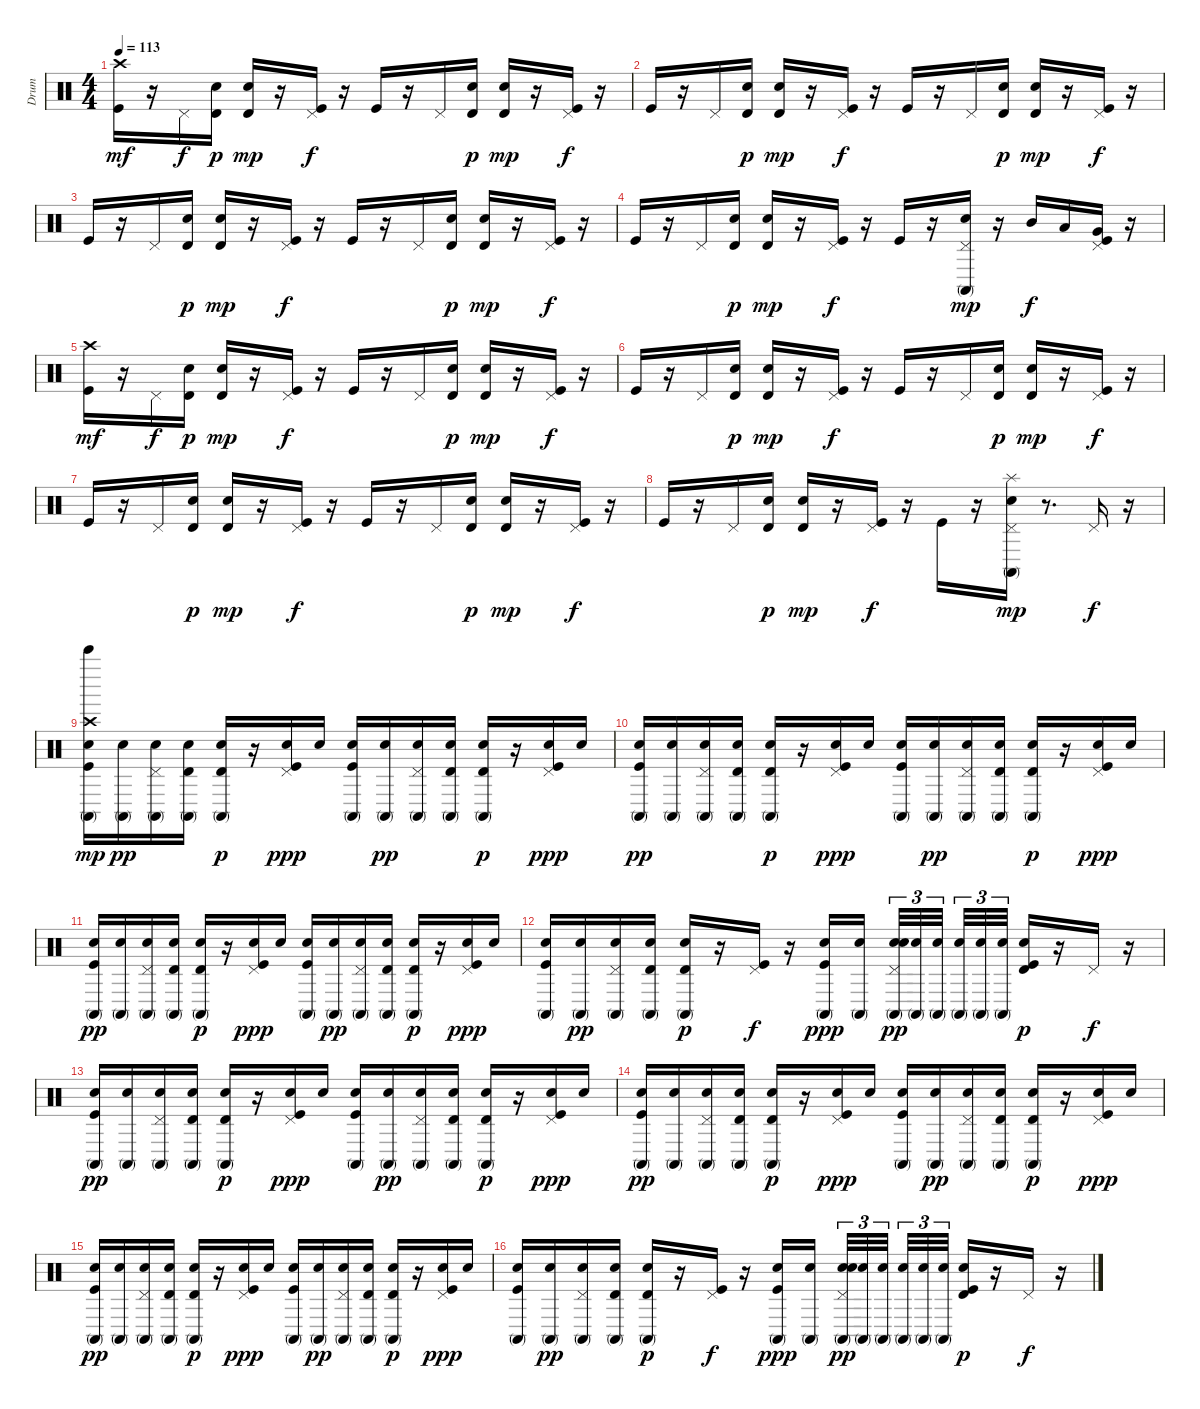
\track ("Drum" "Drum") {instrument percussion}
\staff {score}
\articulation defaults
\ts (4 4)
\tempo 113
\clef neutral
\ks c
("Crash high (hit)" "Kick (hit)").16{dy mf} r.16 "Pedal Hi-Hat (hit)".16{dy f} ("Electric Snare (hit)" "Timbale high (hit)").16{dy p} ("Electric Snare (hit)" "Timbale high (hit)").16{dy mp} r.16 ("Kick (hit)" "Pedal Hi-Hat (hit)").16{dy f} r.16 "Kick (hit)".16 r.16 "Pedal Hi-Hat (hit)".16 ("Electric Snare (hit)" "Timbale high (hit)").16{dy p} ("Electric Snare (hit)" "Timbale high (hit)").16{dy mp} r.16 ("Kick (hit)" "Pedal Hi-Hat (hit)").16{dy f} r.16 |
"Kick (hit)".16 r.16 "Pedal Hi-Hat (hit)".16 ("Electric Snare (hit)" "Timbale high (hit)").16{dy p} ("Electric Snare (hit)" "Timbale high (hit)").16{dy mp} r.16 ("Kick (hit)" "Pedal Hi-Hat (hit)").16{dy f} r.16 "Kick (hit)".16 r.16 "Pedal Hi-Hat (hit)".16 ("Electric Snare (hit)" "Timbale high (hit)").16{dy p} ("Electric Snare (hit)" "Timbale high (hit)").16{dy mp} r.16 ("Kick (hit)" "Pedal Hi-Hat (hit)").16{dy f} r.16 |
"Kick (hit)".16 r.16 "Pedal Hi-Hat (hit)".16 ("Electric Snare (hit)" "Timbale high (hit)").16{dy p} ("Electric Snare (hit)" "Timbale high (hit)").16{dy mp} r.16 ("Kick (hit)" "Pedal Hi-Hat (hit)").16{dy f} r.16 "Kick (hit)".16 r.16 "Pedal Hi-Hat (hit)".16 ("Electric Snare (hit)" "Timbale high (hit)").16{dy p} ("Electric Snare (hit)" "Timbale high (hit)").16{dy mp} r.16 ("Kick (hit)" "Pedal Hi-Hat (hit)").16{dy f} r.16 |
"Kick (hit)".16 r.16 "Pedal Hi-Hat (hit)".16 ("Electric Snare (hit)" "Timbale high (hit)").16{dy p} ("Electric Snare (hit)" "Timbale high (hit)").16{dy mp} r.16 ("Kick (hit)" "Pedal Hi-Hat (hit)").16{dy f} r.16 "Kick (hit)".16 r.16 ("Electric Snare (hit)" "Conga high (mute)" "Pedal Hi-Hat (hit)").16{dy mp} r.16 "Mid Tom (hit)".16{dy f} "Low Tom (hit)".16 ("Very Low Tom (hit)" "Kick (hit)" "Pedal Hi-Hat (hit)").16 r.16 |
("Crash high (hit)" "Kick (hit)").16{dy mf} r.16 "Pedal Hi-Hat (hit)".16{dy f} ("Electric Snare (hit)" "Timbale high (hit)").16{dy p} ("Electric Snare (hit)" "Timbale high (hit)").16{dy mp} r.16 ("Kick (hit)" "Pedal Hi-Hat (hit)").16{dy f} r.16 "Kick (hit)".16 r.16 "Pedal Hi-Hat (hit)".16 ("Electric Snare (hit)" "Timbale high (hit)").16{dy p} ("Electric Snare (hit)" "Timbale high (hit)").16{dy mp} r.16 ("Kick (hit)" "Pedal Hi-Hat (hit)").16{dy f} r.16 |
"Kick (hit)".16 r.16 "Pedal Hi-Hat (hit)".16 ("Electric Snare (hit)" "Timbale high (hit)").16{dy p} ("Electric Snare (hit)" "Timbale high (hit)").16{dy mp} r.16 ("Kick (hit)" "Pedal Hi-Hat (hit)").16{dy f} r.16 "Kick (hit)".16 r.16 "Pedal Hi-Hat (hit)".16 ("Electric Snare (hit)" "Timbale high (hit)").16{dy p} ("Electric Snare (hit)" "Timbale high (hit)").16{dy mp} r.16 ("Kick (hit)" "Pedal Hi-Hat (hit)").16{dy f} r.16 |
"Kick (hit)".16 r.16 "Pedal Hi-Hat (hit)".16 ("Electric Snare (hit)" "Timbale high (hit)").16{dy p} ("Electric Snare (hit)" "Timbale high (hit)").16{dy mp} r.16 ("Kick (hit)" "Pedal Hi-Hat (hit)").16{dy f} r.16 "Kick (hit)".16 r.16 "Pedal Hi-Hat (hit)".16 ("Electric Snare (hit)" "Timbale high (hit)").16{dy p} ("Electric Snare (hit)" "Timbale high (hit)").16{dy mp} r.16 ("Kick (hit)" "Pedal Hi-Hat (hit)").16{dy f} r.16 |
"Kick (hit)".16 r.16 "Pedal Hi-Hat (hit)".16 ("Electric Snare (hit)" "Timbale high (hit)").16{dy p} ("Electric Snare (hit)" "Timbale high (hit)").16{dy mp} r.16 ("Kick (hit)" "Pedal Hi-Hat (hit)").16{dy f} r.16 "Kick (hit)".16 r.16 ("Splash (hit)" "Electric Snare (hit)" "Conga high (mute)" "Pedal Hi-Hat (hit)").16{dy mp} r.8{d} "Pedal Hi-Hat (hit)".16{dy f} r.16 |
("Crash high (hit)" "Electric Snare (hit)" "Conga high (mute)" "Kick (hit)" "Bell Tree (hit)").16{dy mp} ("Electric Snare (hit)" "Conga high (mute)").16{dy pp} ("Electric Snare (hit)" "Conga high (mute)" "Pedal Hi-Hat (hit)").16 ("Electric Snare (hit)" "Conga high (mute)" "Timbale high (hit)").16 ("Electric Snare (hit)" "Conga high (mute)" "Timbale high (hit)").16{dy p} r.16 ("Electric Snare (hit)" "Kick (hit)" "Pedal Hi-Hat (hit)").16{dy ppp} "Electric Snare (hit)".16 ("Electric Snare (hit)" "Conga high (mute)" "Kick (hit)").16 ("Electric Snare (hit)" "Conga high (mute)").16{dy pp} ("Electric Snare (hit)" "Conga high (mute)" "Pedal Hi-Hat (hit)").16 ("Electric Snare (hit)" "Conga high (mute)" "Timbale high (hit)").16 ("Electric Snare (hit)" "Conga high (mute)" "Timbale high (hit)").16{dy p} r.16 ("Electric Snare (hit)" "Kick (hit)" "Pedal Hi-Hat (hit)").16{dy ppp} "Electric Snare (hit)".16 |
("Electric Snare (hit)" "Conga high (mute)" "Kick (hit)").16{dy pp} ("Electric Snare (hit)" "Conga high (mute)").16 ("Electric Snare (hit)" "Conga high (mute)" "Pedal Hi-Hat (hit)").16 ("Electric Snare (hit)" "Conga high (mute)" "Timbale high (hit)").16 ("Electric Snare (hit)" "Conga high (mute)" "Timbale high (hit)").16{dy p} r.16 ("Electric Snare (hit)" "Kick (hit)" "Pedal Hi-Hat (hit)").16{dy ppp} "Electric Snare (hit)".16 ("Electric Snare (hit)" "Conga high (mute)" "Kick (hit)").16 ("Electric Snare (hit)" "Conga high (mute)").16{dy pp} ("Electric Snare (hit)" "Conga high (mute)" "Pedal Hi-Hat (hit)").16 ("Electric Snare (hit)" "Conga high (mute)" "Timbale high (hit)").16 ("Electric Snare (hit)" "Conga high (mute)" "Timbale high (hit)").16{dy p} r.16 ("Electric Snare (hit)" "Kick (hit)" "Pedal Hi-Hat (hit)").16{dy ppp} "Electric Snare (hit)".16 |
("Electric Snare (hit)" "Conga high (mute)" "Kick (hit)").16{dy pp} ("Electric Snare (hit)" "Conga high (mute)").16 ("Electric Snare (hit)" "Conga high (mute)" "Pedal Hi-Hat (hit)").16 ("Electric Snare (hit)" "Conga high (mute)" "Timbale high (hit)").16 ("Electric Snare (hit)" "Conga high (mute)" "Timbale high (hit)").16{dy p} r.16 ("Electric Snare (hit)" "Kick (hit)" "Pedal Hi-Hat (hit)").16{dy ppp} "Electric Snare (hit)".16 ("Electric Snare (hit)" "Conga high (mute)" "Kick (hit)").16 ("Electric Snare (hit)" "Conga high (mute)").16{dy pp} ("Electric Snare (hit)" "Conga high (mute)" "Pedal Hi-Hat (hit)").16 ("Electric Snare (hit)" "Conga high (mute)" "Timbale high (hit)").16 ("Electric Snare (hit)" "Conga high (mute)" "Timbale high (hit)").16{dy p} r.16 ("Electric Snare (hit)" "Kick (hit)" "Pedal Hi-Hat (hit)").16{dy ppp} "Electric Snare (hit)".16 |
("Electric Snare (hit)" "Conga high (mute)" "Kick (hit)").16 ("Electric Snare (hit)" "Conga high (mute)").16{dy pp} ("Electric Snare (hit)" "Conga high (mute)" "Pedal Hi-Hat (hit)").16 ("Electric Snare (hit)" "Conga high (mute)" "Timbale high (hit)").16 ("Electric Snare (hit)" "Conga high (mute)" "Timbale high (hit)").16{dy p} r.16 ("Kick (hit)" "Pedal Hi-Hat (hit)").16{dy f} r.16 ("Electric Snare (hit)" "Conga high (mute)" "Kick (hit)").16{dy ppp} ("Electric Snare (hit)" "Conga high (mute)").16 ("Electric Snare (hit)" "Electric Snare (hit)" "Conga high (mute)" "Pedal Hi-Hat (hit)").32{tu (3 2) dy pp} ("Electric Snare (hit)" "Conga high (mute)").32{tu (3 2)} ("Electric Snare (hit)" "Conga high (mute)").32{tu (3 2)} ("Electric Snare (hit)" "Conga high (mute)").32{tu (3 2)} ("Electric Snare (hit)" "Conga high (mute)").32{tu (3 2)} ("Electric Snare (hit)" "Conga high (mute)").32{tu (3 2)} ("Timbale high (hit)" "Electric Snare (hit)" "Kick (hit)").16{dy p} r.16 "Pedal Hi-Hat (hit)".16{dy f} r.16 |
("Electric Snare (hit)" "Conga high (mute)" "Kick (hit)").16{dy pp} ("Electric Snare (hit)" "Conga high (mute)").16 ("Electric Snare (hit)" "Conga high (mute)" "Pedal Hi-Hat (hit)").16 ("Electric Snare (hit)" "Conga high (mute)" "Timbale high (hit)").16 ("Electric Snare (hit)" "Conga high (mute)" "Timbale high (hit)").16{dy p} r.16 ("Electric Snare (hit)" "Kick (hit)" "Pedal Hi-Hat (hit)").16{dy ppp} "Electric Snare (hit)".16 ("Electric Snare (hit)" "Conga high (mute)" "Kick (hit)").16 ("Electric Snare (hit)" "Conga high (mute)").16{dy pp} ("Electric Snare (hit)" "Conga high (mute)" "Pedal Hi-Hat (hit)").16 ("Electric Snare (hit)" "Conga high (mute)" "Timbale high (hit)").16 ("Electric Snare (hit)" "Conga high (mute)" "Timbale high (hit)").16{dy p} r.16 ("Electric Snare (hit)" "Kick (hit)" "Pedal Hi-Hat (hit)").16{dy ppp} "Electric Snare (hit)".16 |
("Electric Snare (hit)" "Conga high (mute)" "Kick (hit)").16{dy pp} ("Electric Snare (hit)" "Conga high (mute)").16 ("Electric Snare (hit)" "Conga high (mute)" "Pedal Hi-Hat (hit)").16 ("Electric Snare (hit)" "Conga high (mute)" "Timbale high (hit)").16 ("Electric Snare (hit)" "Conga high (mute)" "Timbale high (hit)").16{dy p} r.16 ("Electric Snare (hit)" "Kick (hit)" "Pedal Hi-Hat (hit)").16{dy ppp} "Electric Snare (hit)".16 ("Electric Snare (hit)" "Conga high (mute)" "Kick (hit)").16 ("Electric Snare (hit)" "Conga high (mute)").16{dy pp} ("Electric Snare (hit)" "Conga high (mute)" "Pedal Hi-Hat (hit)").16 ("Electric Snare (hit)" "Conga high (mute)" "Timbale high (hit)").16 ("Electric Snare (hit)" "Conga high (mute)" "Timbale high (hit)").16{dy p} r.16 ("Electric Snare (hit)" "Kick (hit)" "Pedal Hi-Hat (hit)").16{dy ppp} "Electric Snare (hit)".16 |
("Electric Snare (hit)" "Conga high (mute)" "Kick (hit)").16{dy pp} ("Electric Snare (hit)" "Conga high (mute)").16 ("Electric Snare (hit)" "Conga high (mute)" "Pedal Hi-Hat (hit)").16 ("Electric Snare (hit)" "Conga high (mute)" "Timbale high (hit)").16 ("Electric Snare (hit)" "Conga high (mute)" "Timbale high (hit)").16{dy p} r.16 ("Electric Snare (hit)" "Kick (hit)" "Pedal Hi-Hat (hit)").16{dy ppp} "Electric Snare (hit)".16 ("Electric Snare (hit)" "Conga high (mute)" "Kick (hit)").16 ("Electric Snare (hit)" "Conga high (mute)").16{dy pp} ("Electric Snare (hit)" "Conga high (mute)" "Pedal Hi-Hat (hit)").16 ("Electric Snare (hit)" "Conga high (mute)" "Timbale high (hit)").16 ("Electric Snare (hit)" "Conga high (mute)" "Timbale high (hit)").16{dy p} r.16 ("Electric Snare (hit)" "Kick (hit)" "Pedal Hi-Hat (hit)").16{dy ppp} "Electric Snare (hit)".16 |
("Electric Snare (hit)" "Conga high (mute)" "Kick (hit)").16 ("Electric Snare (hit)" "Conga high (mute)").16{dy pp} ("Electric Snare (hit)" "Conga high (mute)" "Pedal Hi-Hat (hit)").16 ("Electric Snare (hit)" "Conga high (mute)" "Timbale high (hit)").16 ("Electric Snare (hit)" "Conga high (mute)" "Timbale high (hit)").16{dy p} r.16 ("Kick (hit)" "Pedal Hi-Hat (hit)").16{dy f} r.16 ("Electric Snare (hit)" "Conga high (mute)" "Kick (hit)").16{dy ppp} ("Electric Snare (hit)" "Conga high (mute)").16 ("Electric Snare (hit)" "Electric Snare (hit)" "Conga high (mute)" "Pedal Hi-Hat (hit)").32{tu (3 2) dy pp} ("Electric Snare (hit)" "Conga high (mute)").32{tu (3 2)} ("Electric Snare (hit)" "Conga high (mute)").32{tu (3 2)} ("Electric Snare (hit)" "Conga high (mute)").32{tu (3 2)} ("Electric Snare (hit)" "Conga high (mute)").32{tu (3 2)} ("Electric Snare (hit)" "Conga high (mute)").32{tu (3 2)} ("Timbale high (hit)" "Electric Snare (hit)" "Kick (hit)").16{dy p} r.16 "Pedal Hi-Hat (hit)".16{dy f} r.16
